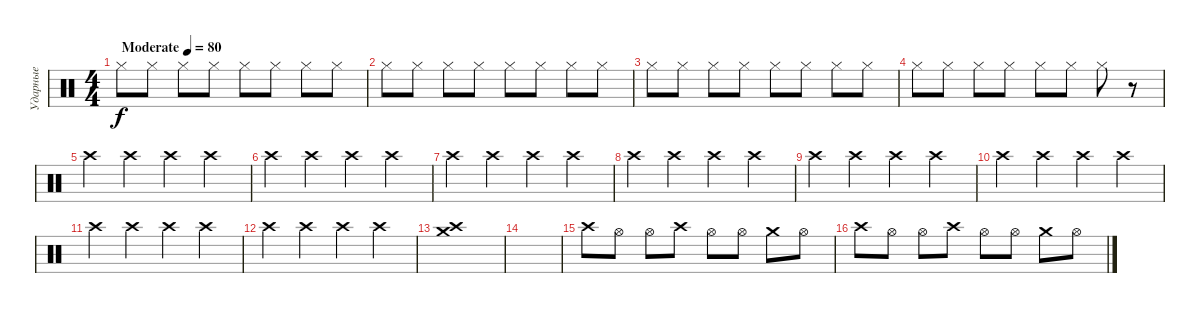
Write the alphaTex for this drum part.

\track ("Ударные" "Ударные") {instrument percussion}
\staff {score}
\articulation defaults
\ts (4 4)
\tempo (80 "Moderate")
\clef neutral
\ks c "Hi-Hat (closed)".8{dy f} "Hi-Hat (closed)".8 "Hi-Hat (closed)".8 "Hi-Hat (closed)".8 "Hi-Hat (closed)".8 "Hi-Hat (closed)".8 "Hi-Hat (closed)".8 "Hi-Hat (closed)".8
|
"Hi-Hat (closed)".8 "Hi-Hat (closed)".8 "Hi-Hat (closed)".8 "Hi-Hat (closed)".8 "Hi-Hat (closed)".8 "Hi-Hat (closed)".8 "Hi-Hat (closed)".8 "Hi-Hat (closed)".8 |
"Hi-Hat (closed)".8 "Hi-Hat (closed)".8 "Hi-Hat (closed)".8 "Hi-Hat (closed)".8 "Hi-Hat (closed)".8 "Hi-Hat (closed)".8 "Hi-Hat (closed)".8 "Hi-Hat (closed)".8 |
"Hi-Hat (closed)".8 "Hi-Hat (closed)".8 "Hi-Hat (closed)".8 "Hi-Hat (closed)".8 "Hi-Hat (closed)".8 "Hi-Hat (closed)".8 "Hi-Hat (closed)".8 r.8 |
"Crash high (hit)".4 "Crash high (hit)".4 "Crash high (hit)".4 "Crash high (hit)".4 |
"Crash high (hit)".4 "Crash high (hit)".4 "Crash high (hit)".4 "Crash high (hit)".4 |
"Crash high (hit)".4 "Crash high (hit)".4 "Crash high (hit)".4 "Crash high (hit)".4 |
"Crash high (hit)".4 "Crash high (hit)".4 "Crash high (hit)".4 "Crash high (hit)".4 |
"Crash high (hit)".4 "Crash high (hit)".4 "Crash high (hit)".4 "Crash high (hit)".4 |
"Crash high (hit)".4 "Crash high (hit)".4 "Crash high (hit)".4 "Crash high (hit)".4 |
"Crash high (hit)".4 "Crash high (hit)".4 "Crash high (hit)".4 "Crash high (hit)".4 |
"Crash high (hit)".4 "Crash high (hit)".4 "Crash high (hit)".4 "Crash high (hit)".4 |
("Crash high (hit)" "Crash medium (hit)").1 |
|
"Crash high (hit)".8 "Hi-Hat (open)".8 "Hi-Hat (open)".8 "Crash high (hit)".8 "Hi-Hat (open)".8 "Hi-Hat (open)".8 "Crash medium (hit)".8 "Hi-Hat (open)".8 |
"Crash high (hit)".8 "Hi-Hat (open)".8 "Hi-Hat (open)".8 "Crash high (hit)".8 "Hi-Hat (open)".8 "Hi-Hat (open)".8 "Crash medium (hit)".8 "Hi-Hat (open)".8
